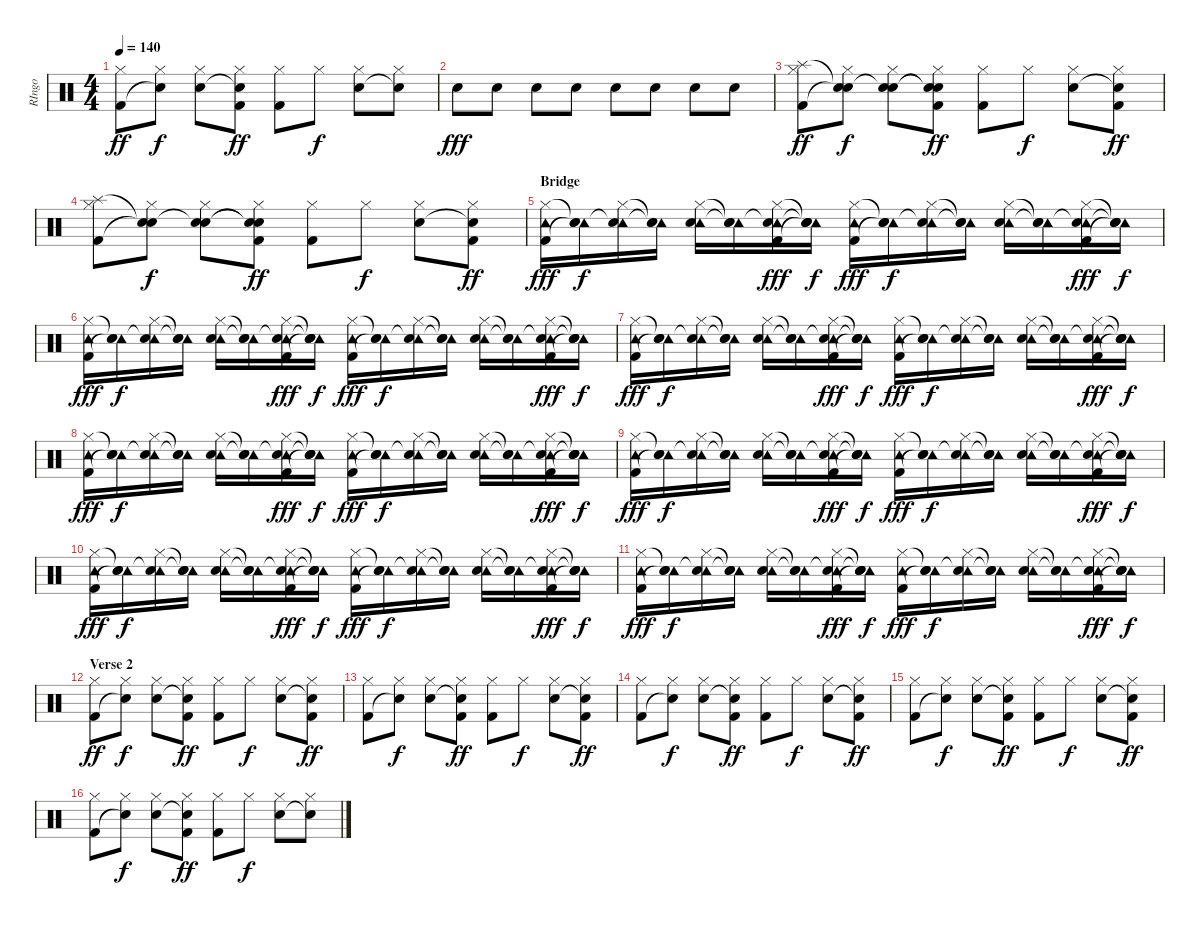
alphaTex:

\track ("RIngo" "RIngo") {instrument percussion}
\staff {score}
\articulation defaults
\ts (4 4)
\tempo 140
\clef neutral
\ks c
("Hi-Hat (closed)" "Kick (hit) 2").8{dy ff} ("Hi-Hat (closed)" "Snare (hit)"{t}).8{dy f} ("Hi-Hat (closed)" "Snare (hit) 2").8 ("Hi-Hat (closed)" "Snare (hit)"{t} "Kick (hit) 2").8{dy ff} ("Hi-Hat (closed)" "Kick (hit) 2").8 "Hi-Hat (closed)".8{dy f} ("Hi-Hat (closed)" "Snare (hit) 2").8 ("Hi-Hat (closed)" "Snare (hit)"{t}).8 |
"Snare (hit) 2".8{dy fff} "Snare (hit) 2".8 "Snare (hit) 2".8 "Snare (hit) 2".8 "Snare (hit) 2".8 "Snare (hit) 2".8 "Snare (hit) 2".8 "Snare (hit) 2".8 |
("Splash (hit)" "Hi-Hat (closed)" "Kick (hit) 2").8{dy ff} ("Snare (hit)"{t} "Hi-Hat (closed)" "Snare (hit)"{t}).8{dy f} ("Snare (hit)"{t} "Hi-Hat (closed)" "Snare (hit) 2").8 ("Snare (hit)"{t} "Hi-Hat (closed)" "Snare (hit)"{t} "Kick (hit) 2").8{dy ff} ("Hi-Hat (closed)" "Kick (hit) 2").8 "Hi-Hat (closed)".8{dy f} ("Hi-Hat (closed)" "Snare (hit) 2").8 ("Hi-Hat (closed)" "Snare (hit)"{t} "Kick (hit) 2").8{dy ff} |
("Splash (hit)" "Hi-Hat (closed)" "Kick (hit) 2").8 ("Snare (hit)"{t} "Hi-Hat (closed)" "Snare (hit)"{t}).8{dy f} ("Snare (hit)"{t} "Hi-Hat (closed)" "Snare (hit) 2").8 ("Snare (hit)"{t} "Hi-Hat (closed)" "Snare (hit)"{t} "Kick (hit) 2").8{dy ff} ("Hi-Hat (closed)" "Kick (hit) 2").8 "Hi-Hat (closed)".8{dy f} ("Hi-Hat (closed)" "Snare (hit) 2").8 ("Hi-Hat (closed)" "Snare (hit)"{t} "Kick (hit) 2").8{dy ff} |
\section ("" "Bridge")
("Tambourine (hit)" "Hi-Hat (closed)" "Kick (hit) 2").16{dy fff} ("Tambourine (hit)" "Snare (hit)"{t} "Snare (hit)"{t}).16{dy f} ("Tambourine (hit)" "Hi-Hat (closed)" "Snare (hit)"{t}).16 ("Tambourine (hit)" "Snare (hit)"{t} "Snare (hit)"{t}).16 ("Tambourine (hit)" "Hi-Hat (closed)" "Snare (hit) 2").16 ("Tambourine (hit)" "Snare (hit)"{t} "Snare (hit)"{t}).16 ("Tambourine (hit)" "Hi-Hat (closed)" "Snare (hit)"{t} "Kick (hit) 2").16{dy fff} ("Tambourine (hit)" "Snare (hit)"{t} "Snare (hit)"{t} "Snare (hit)"{t}).16{dy f} ("Tambourine (hit)" "Hi-Hat (closed)" "Kick (hit) 2").16{dy fff} ("Tambourine (hit)" "Snare (hit)"{t} "Snare (hit)"{t}).16{dy f} ("Tambourine (hit)" "Hi-Hat (closed)" "Snare (hit)"{t}).16 ("Tambourine (hit)" "Snare (hit)"{t} "Snare (hit)"{t}).16 ("Tambourine (hit)" "Hi-Hat (closed)" "Snare (hit) 2").16 ("Tambourine (hit)" "Snare (hit)"{t} "Snare (hit)"{t}).16 ("Tambourine (hit)" "Hi-Hat (closed)" "Snare (hit)"{t} "Kick (hit) 2").16{dy fff} ("Tambourine (hit)" "Snare (hit)"{t} "Snare (hit)"{t} "Snare (hit)"{t}).16{dy f} |
("Tambourine (hit)" "Hi-Hat (closed)" "Kick (hit) 2").16{dy fff} ("Tambourine (hit)" "Snare (hit)"{t} "Snare (hit)"{t}).16{dy f} ("Tambourine (hit)" "Hi-Hat (closed)" "Snare (hit)"{t}).16 ("Tambourine (hit)" "Snare (hit)"{t} "Snare (hit)"{t}).16 ("Tambourine (hit)" "Hi-Hat (closed)" "Snare (hit) 2").16 ("Tambourine (hit)" "Snare (hit)"{t} "Snare (hit)"{t}).16 ("Tambourine (hit)" "Hi-Hat (closed)" "Snare (hit)"{t} "Kick (hit) 2").16{dy fff} ("Tambourine (hit)" "Snare (hit)"{t} "Snare (hit)"{t} "Snare (hit)"{t}).16{dy f} ("Tambourine (hit)" "Hi-Hat (closed)" "Kick (hit) 2").16{dy fff} ("Tambourine (hit)" "Snare (hit)"{t} "Snare (hit)"{t}).16{dy f} ("Tambourine (hit)" "Hi-Hat (closed)" "Snare (hit)"{t}).16 ("Tambourine (hit)" "Snare (hit)"{t} "Snare (hit)"{t}).16 ("Tambourine (hit)" "Hi-Hat (closed)" "Snare (hit) 2").16 ("Tambourine (hit)" "Snare (hit)"{t} "Snare (hit)"{t}).16 ("Tambourine (hit)" "Hi-Hat (closed)" "Snare (hit)"{t} "Kick (hit) 2").16{dy fff} ("Tambourine (hit)" "Snare (hit)"{t} "Snare (hit)"{t} "Snare (hit)"{t}).16{dy f} |
("Tambourine (hit)" "Hi-Hat (closed)" "Kick (hit) 2").16{dy fff} ("Tambourine (hit)" "Snare (hit)"{t} "Snare (hit)"{t}).16{dy f} ("Tambourine (hit)" "Hi-Hat (closed)" "Snare (hit)"{t}).16 ("Tambourine (hit)" "Snare (hit)"{t} "Snare (hit)"{t}).16 ("Tambourine (hit)" "Hi-Hat (closed)" "Snare (hit) 2").16 ("Tambourine (hit)" "Snare (hit)"{t} "Snare (hit)"{t}).16 ("Tambourine (hit)" "Hi-Hat (closed)" "Snare (hit)"{t} "Kick (hit) 2").16{dy fff} ("Tambourine (hit)" "Snare (hit)"{t} "Snare (hit)"{t} "Snare (hit)"{t}).16{dy f} ("Tambourine (hit)" "Hi-Hat (closed)" "Kick (hit) 2").16{dy fff} ("Tambourine (hit)" "Snare (hit)"{t} "Snare (hit)"{t}).16{dy f} ("Tambourine (hit)" "Hi-Hat (closed)" "Snare (hit)"{t}).16 ("Tambourine (hit)" "Snare (hit)"{t} "Snare (hit)"{t}).16 ("Tambourine (hit)" "Hi-Hat (closed)" "Snare (hit) 2").16 ("Tambourine (hit)" "Snare (hit)"{t} "Snare (hit)"{t}).16 ("Tambourine (hit)" "Hi-Hat (closed)" "Snare (hit)"{t} "Kick (hit) 2").16{dy fff} ("Tambourine (hit)" "Snare (hit)"{t} "Snare (hit)"{t} "Snare (hit)"{t}).16{dy f} |
("Tambourine (hit)" "Hi-Hat (closed)" "Kick (hit) 2").16{dy fff} ("Tambourine (hit)" "Snare (hit)"{t} "Snare (hit)"{t}).16{dy f} ("Tambourine (hit)" "Hi-Hat (closed)" "Snare (hit)"{t}).16 ("Tambourine (hit)" "Snare (hit)"{t} "Snare (hit)"{t}).16 ("Tambourine (hit)" "Hi-Hat (closed)" "Snare (hit) 2").16 ("Tambourine (hit)" "Snare (hit)"{t} "Snare (hit)"{t}).16 ("Tambourine (hit)" "Hi-Hat (closed)" "Snare (hit)"{t} "Kick (hit) 2").16{dy fff} ("Tambourine (hit)" "Snare (hit)"{t} "Snare (hit)"{t} "Snare (hit)"{t}).16{dy f} ("Tambourine (hit)" "Hi-Hat (closed)" "Kick (hit) 2").16{dy fff} ("Tambourine (hit)" "Snare (hit)"{t} "Snare (hit)"{t}).16{dy f} ("Tambourine (hit)" "Hi-Hat (closed)" "Snare (hit)"{t}).16 ("Tambourine (hit)" "Snare (hit)"{t} "Snare (hit)"{t}).16 ("Tambourine (hit)" "Hi-Hat (closed)" "Snare (hit) 2").16 ("Tambourine (hit)" "Snare (hit)"{t} "Snare (hit)"{t}).16 ("Tambourine (hit)" "Hi-Hat (closed)" "Snare (hit)"{t} "Kick (hit) 2").16{dy fff} ("Tambourine (hit)" "Snare (hit)"{t} "Snare (hit)"{t} "Snare (hit)"{t}).16{dy f} |
("Tambourine (hit)" "Hi-Hat (closed)" "Kick (hit) 2").16{dy fff} ("Tambourine (hit)" "Snare (hit)"{t} "Snare (hit)"{t}).16{dy f} ("Tambourine (hit)" "Hi-Hat (closed)" "Snare (hit)"{t}).16 ("Tambourine (hit)" "Snare (hit)"{t} "Snare (hit)"{t}).16 ("Tambourine (hit)" "Hi-Hat (closed)" "Snare (hit) 2").16 ("Tambourine (hit)" "Snare (hit)"{t} "Snare (hit)"{t}).16 ("Tambourine (hit)" "Hi-Hat (closed)" "Snare (hit)"{t} "Kick (hit) 2").16{dy fff} ("Tambourine (hit)" "Snare (hit)"{t} "Snare (hit)"{t} "Snare (hit)"{t}).16{dy f} ("Tambourine (hit)" "Hi-Hat (closed)" "Kick (hit) 2").16{dy fff} ("Tambourine (hit)" "Snare (hit)"{t} "Snare (hit)"{t}).16{dy f} ("Tambourine (hit)" "Hi-Hat (closed)" "Snare (hit)"{t}).16 ("Tambourine (hit)" "Snare (hit)"{t} "Snare (hit)"{t}).16 ("Tambourine (hit)" "Hi-Hat (closed)" "Snare (hit) 2").16 ("Tambourine (hit)" "Snare (hit)"{t} "Snare (hit)"{t}).16 ("Tambourine (hit)" "Hi-Hat (closed)" "Snare (hit)"{t} "Kick (hit) 2").16{dy fff} ("Tambourine (hit)" "Snare (hit)"{t} "Snare (hit)"{t} "Snare (hit)"{t}).16{dy f} |
("Tambourine (hit)" "Hi-Hat (closed)" "Kick (hit) 2").16{dy fff} ("Tambourine (hit)" "Snare (hit)"{t} "Snare (hit)"{t}).16{dy f} ("Tambourine (hit)" "Hi-Hat (closed)" "Snare (hit)"{t}).16 ("Tambourine (hit)" "Snare (hit)"{t} "Snare (hit)"{t}).16 ("Tambourine (hit)" "Hi-Hat (closed)" "Snare (hit) 2").16 ("Tambourine (hit)" "Snare (hit)"{t} "Snare (hit)"{t}).16 ("Tambourine (hit)" "Hi-Hat (closed)" "Snare (hit)"{t} "Kick (hit) 2").16{dy fff} ("Tambourine (hit)" "Snare (hit)"{t} "Snare (hit)"{t} "Snare (hit)"{t}).16{dy f} ("Tambourine (hit)" "Hi-Hat (closed)" "Kick (hit) 2").16{dy fff} ("Tambourine (hit)" "Snare (hit)"{t} "Snare (hit)"{t}).16{dy f} ("Tambourine (hit)" "Hi-Hat (closed)" "Snare (hit)"{t}).16 ("Tambourine (hit)" "Snare (hit)"{t} "Snare (hit)"{t}).16 ("Tambourine (hit)" "Hi-Hat (closed)" "Snare (hit) 2").16 ("Tambourine (hit)" "Snare (hit)"{t} "Snare (hit)"{t}).16 ("Tambourine (hit)" "Hi-Hat (closed)" "Snare (hit)"{t} "Kick (hit) 2").16{dy fff} ("Tambourine (hit)" "Snare (hit)"{t} "Snare (hit)"{t} "Snare (hit)"{t}).16{dy f} |
("Tambourine (hit)" "Hi-Hat (closed)" "Kick (hit) 2").16{dy fff} ("Tambourine (hit)" "Snare (hit)"{t} "Snare (hit)"{t}).16{dy f} ("Tambourine (hit)" "Hi-Hat (closed)" "Snare (hit)"{t}).16 ("Tambourine (hit)" "Snare (hit)"{t} "Snare (hit)"{t}).16 ("Tambourine (hit)" "Hi-Hat (closed)" "Snare (hit) 2").16 ("Tambourine (hit)" "Snare (hit)"{t} "Snare (hit)"{t}).16 ("Tambourine (hit)" "Hi-Hat (closed)" "Snare (hit)"{t} "Kick (hit) 2").16{dy fff} ("Tambourine (hit)" "Snare (hit)"{t} "Snare (hit)"{t} "Snare (hit)"{t}).16{dy f} ("Tambourine (hit)" "Hi-Hat (closed)" "Kick (hit) 2").16{dy fff} ("Tambourine (hit)" "Snare (hit)"{t} "Snare (hit)"{t}).16{dy f} ("Tambourine (hit)" "Hi-Hat (closed)" "Snare (hit)"{t}).16 ("Tambourine (hit)" "Snare (hit)"{t} "Snare (hit)"{t}).16 ("Tambourine (hit)" "Hi-Hat (closed)" "Snare (hit) 2").16 ("Tambourine (hit)" "Snare (hit)"{t} "Snare (hit)"{t}).16 ("Tambourine (hit)" "Hi-Hat (closed)" "Snare (hit)"{t} "Kick (hit) 2").16{dy fff} ("Tambourine (hit)" "Snare (hit)"{t} "Snare (hit)"{t} "Snare (hit)"{t}).16{dy f} |
\section ("" "Verse 2")
("Hi-Hat (closed)" "Kick (hit) 2").8{dy ff} ("Hi-Hat (closed)" "Snare (hit)"{t}).8{dy f} ("Hi-Hat (closed)" "Snare (hit) 2").8 ("Hi-Hat (closed)" "Snare (hit)"{t} "Kick (hit) 2").8{dy ff} ("Hi-Hat (closed)" "Kick (hit) 2").8 "Hi-Hat (closed)".8{dy f} ("Hi-Hat (closed)" "Snare (hit) 2").8 ("Hi-Hat (closed)" "Snare (hit)"{t} "Kick (hit) 2").8{dy ff} |
("Hi-Hat (closed)" "Kick (hit) 2").8 ("Hi-Hat (closed)" "Snare (hit)"{t}).8{dy f} ("Hi-Hat (closed)" "Snare (hit) 2").8 ("Hi-Hat (closed)" "Snare (hit)"{t} "Kick (hit) 2").8{dy ff} ("Hi-Hat (closed)" "Kick (hit) 2").8 "Hi-Hat (closed)".8{dy f} ("Hi-Hat (closed)" "Snare (hit) 2").8 ("Hi-Hat (closed)" "Snare (hit)"{t} "Kick (hit) 2").8{dy ff} |
("Hi-Hat (closed)" "Kick (hit) 2").8 ("Hi-Hat (closed)" "Snare (hit)"{t}).8{dy f} ("Hi-Hat (closed)" "Snare (hit) 2").8 ("Hi-Hat (closed)" "Snare (hit)"{t} "Kick (hit) 2").8{dy ff} ("Hi-Hat (closed)" "Kick (hit) 2").8 "Hi-Hat (closed)".8{dy f} ("Hi-Hat (closed)" "Snare (hit) 2").8 ("Hi-Hat (closed)" "Snare (hit)"{t} "Kick (hit) 2").8{dy ff} |
("Hi-Hat (closed)" "Kick (hit) 2").8 ("Hi-Hat (closed)" "Snare (hit)"{t}).8{dy f} ("Hi-Hat (closed)" "Snare (hit) 2").8 ("Hi-Hat (closed)" "Snare (hit)"{t} "Kick (hit) 2").8{dy ff} ("Hi-Hat (closed)" "Kick (hit) 2").8 "Hi-Hat (closed)".8{dy f} ("Hi-Hat (closed)" "Snare (hit) 2").8 ("Hi-Hat (closed)" "Snare (hit)"{t} "Kick (hit) 2").8{dy ff} |
("Hi-Hat (closed)" "Kick (hit) 2").8 ("Hi-Hat (closed)" "Snare (hit)"{t}).8{dy f} ("Hi-Hat (closed)" "Snare (hit) 2").8 ("Hi-Hat (closed)" "Snare (hit)"{t} "Kick (hit) 2").8{dy ff} ("Hi-Hat (closed)" "Kick (hit) 2").8 "Hi-Hat (closed)".8{dy f} ("Hi-Hat (closed)" "Snare (hit) 2").8 ("Hi-Hat (closed)" "Snare (hit)"{t}).8
